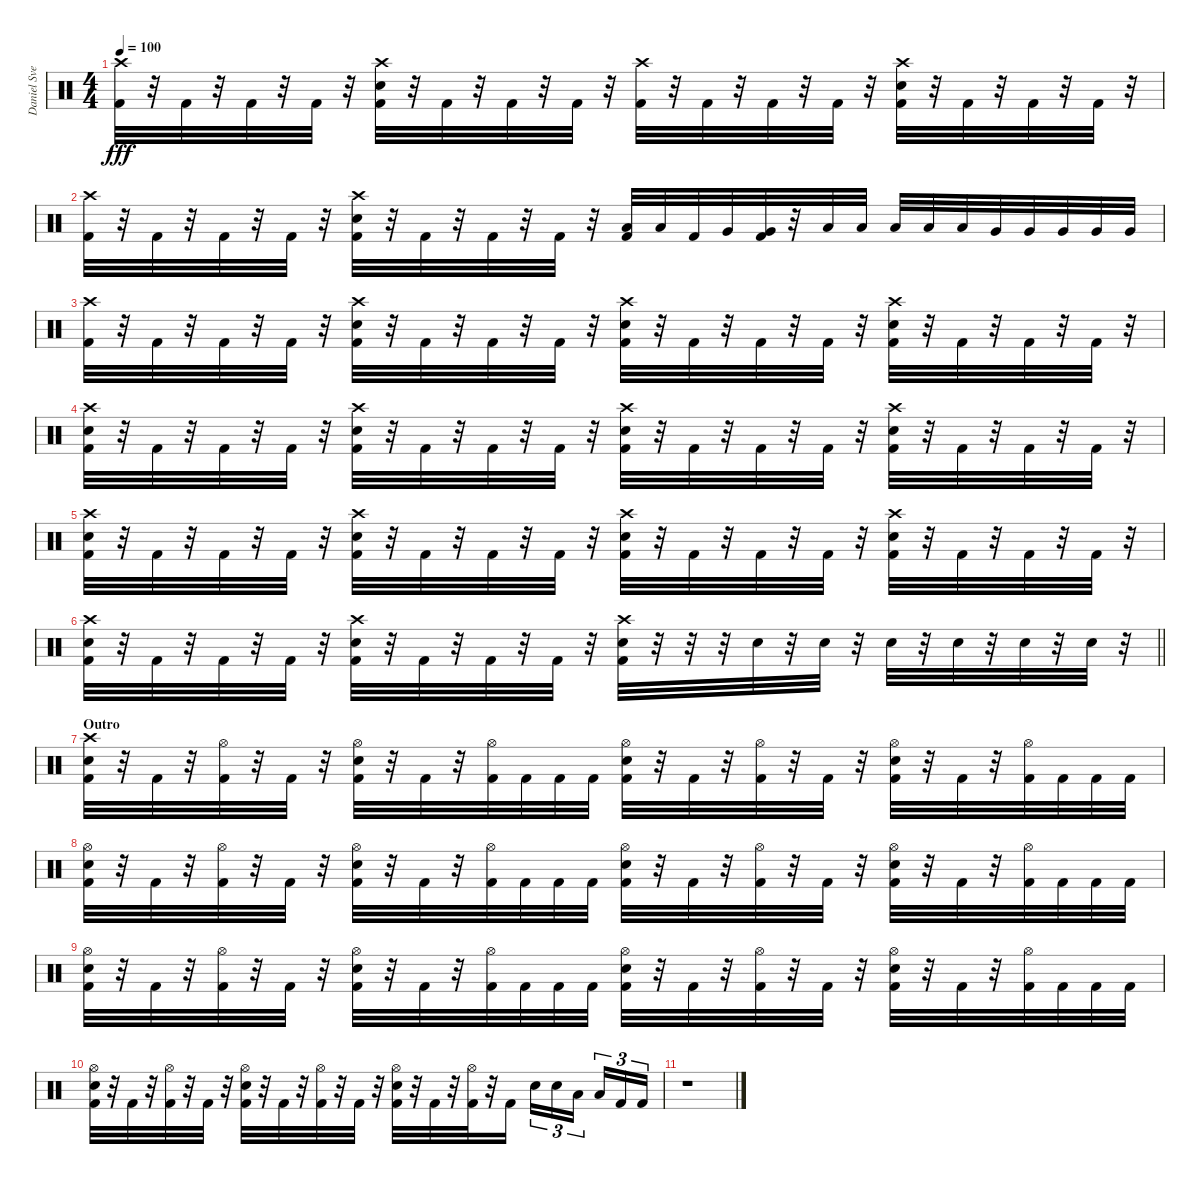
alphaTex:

\track ("Daniel Svensson" "Daniel Sve") {instrument percussion}
\staff {score}
\articulation defaults
\ts (4 4)
\tempo 100
\clef neutral
\ks c
("Crash high (hit)" "Kick (hit) 2").32{dy fff} r.32 "Kick (hit) 2".32 r.32 "Kick (hit) 2".32 r.32 "Kick (hit) 2".32 r.32 ("Crash high (hit)" "Electric Snare (hit)" "Kick (hit) 2").32 r.32 "Kick (hit) 2".32 r.32 "Kick (hit) 2".32 r.32 "Kick (hit) 2".32 r.32 ("Crash high (hit)" "Kick (hit) 2").32 r.32 "Kick (hit) 2".32 r.32 "Kick (hit) 2".32 r.32 "Kick (hit) 2".32 r.32 ("Crash high (hit)" "Electric Snare (hit)" "Kick (hit) 2").32 r.32 "Kick (hit) 2".32 r.32 "Kick (hit) 2".32 r.32 "Kick (hit) 2".32 r.32 |
("Crash high (hit)" "Kick (hit) 2").32 r.32 "Kick (hit) 2".32 r.32 "Kick (hit) 2".32 r.32 "Kick (hit) 2".32 r.32 ("Crash high (hit)" "Electric Snare (hit)" "Kick (hit) 2").32 r.32 "Kick (hit) 2".32 r.32 "Kick (hit) 2".32 r.32 "Kick (hit) 2".32 r.32 ("Low Tom (hit)" "Kick (hit) 2").32 "Low Tom (hit)".32 "Kick (hit) 2".32 "Very Low Tom (hit)".32 ("Very Low Tom (hit)" "Kick (hit) 2").32 r.32 "Low Tom (hit)".32 "Low Tom (hit)".32 "Low Tom (hit)".32 "Low Tom (hit)".32 "Low Tom (hit)".32 "Very Low Tom (hit)".32 "Very Low Tom (hit)".32 "Very Low Tom (hit)".32 "Very Low Tom (hit)".32 "Very Low Tom (hit)".32 |
("Crash high (hit)" "Kick (hit) 2").32 r.32 "Kick (hit) 2".32 r.32 "Kick (hit) 2".32 r.32 "Kick (hit) 2".32 r.32 ("Crash high (hit)" "Electric Snare (hit)" "Kick (hit) 2").32 r.32 "Kick (hit) 2".32 r.32 "Kick (hit) 2".32 r.32 "Kick (hit) 2".32 r.32 ("Crash high (hit)" "Electric Snare (hit)" "Kick (hit) 2").32 r.32 "Kick (hit) 2".32 r.32 "Kick (hit) 2".32 r.32 "Kick (hit) 2".32 r.32 ("Crash high (hit)" "Electric Snare (hit)" "Kick (hit) 2").32 r.32 "Kick (hit) 2".32 r.32 "Kick (hit) 2".32 r.32 "Kick (hit) 2".32 r.32 |
("Crash high (hit)" "Electric Snare (hit)" "Kick (hit) 2").32 r.32 "Kick (hit) 2".32 r.32 "Kick (hit) 2".32 r.32 "Kick (hit) 2".32 r.32 ("Crash high (hit)" "Electric Snare (hit)" "Kick (hit) 2").32 r.32 "Kick (hit) 2".32 r.32 "Kick (hit) 2".32 r.32 "Kick (hit) 2".32 r.32 ("Crash high (hit)" "Electric Snare (hit)" "Kick (hit) 2").32 r.32 "Kick (hit) 2".32 r.32 "Kick (hit) 2".32 r.32 "Kick (hit) 2".32 r.32 ("Crash high (hit)" "Electric Snare (hit)" "Kick (hit) 2").32 r.32 "Kick (hit) 2".32 r.32 "Kick (hit) 2".32 r.32 "Kick (hit) 2".32 r.32 |
("Crash high (hit)" "Electric Snare (hit)" "Kick (hit) 2").32 r.32 "Kick (hit) 2".32 r.32 "Kick (hit) 2".32 r.32 "Kick (hit) 2".32 r.32 ("Crash high (hit)" "Electric Snare (hit)" "Kick (hit) 2").32 r.32 "Kick (hit) 2".32 r.32 "Kick (hit) 2".32 r.32 "Kick (hit) 2".32 r.32 ("Crash high (hit)" "Electric Snare (hit)" "Kick (hit) 2").32 r.32 "Kick (hit) 2".32 r.32 "Kick (hit) 2".32 r.32 "Kick (hit) 2".32 r.32 ("Crash high (hit)" "Electric Snare (hit)" "Kick (hit) 2").32 r.32 "Kick (hit) 2".32 r.32 "Kick (hit) 2".32 r.32 "Kick (hit) 2".32 r.32 |
\barLineRight lightlight
("Crash high (hit)" "Electric Snare (hit)" "Kick (hit) 2").32 r.32 "Kick (hit) 2".32 r.32 "Kick (hit) 2".32 r.32 "Kick (hit) 2".32 r.32 ("Crash high (hit)" "Electric Snare (hit)" "Kick (hit) 2").32 r.32 "Kick (hit) 2".32 r.32 "Kick (hit) 2".32 r.32 "Kick (hit) 2".32 r.32 ("Crash high (hit)" "Electric Snare (hit)" "Kick (hit) 2").32 r.32 r.32 r.32 "Electric Snare (hit)".32 r.32 "Electric Snare (hit)".32 r.32 "Electric Snare (hit)".32 r.32 "Electric Snare (hit)".32 r.32 "Electric Snare (hit)".32 r.32 "Electric Snare (hit)".32 r.32 |
\section ("" "Outro")
("Crash high (hit)" "Electric Snare (hit)" "Kick (hit) 2").32 r.32 "Kick (hit) 2".32 r.32 ("Hi-Hat (open)" "Kick (hit) 2").32 r.32 "Kick (hit) 2".32 r.32 ("Hi-Hat (open)" "Electric Snare (hit)" "Kick (hit) 2").32 r.32 "Kick (hit) 2".32 r.32 ("Hi-Hat (open)" "Kick (hit) 2").32 "Kick (hit) 2".32 "Kick (hit) 2".32 "Kick (hit) 2".32 ("Hi-Hat (open)" "Electric Snare (hit)" "Kick (hit) 2").32 r.32 "Kick (hit) 2".32 r.32 ("Hi-Hat (open)" "Kick (hit) 2").32 r.32 "Kick (hit) 2".32 r.32 ("Hi-Hat (open)" "Electric Snare (hit)" "Kick (hit) 2").32 r.32 "Kick (hit) 2".32 r.32 ("Hi-Hat (open)" "Kick (hit) 2").32 "Kick (hit) 2".32 "Kick (hit) 2".32 "Kick (hit) 2".32 |
("Hi-Hat (open)" "Electric Snare (hit)" "Kick (hit) 2").32 r.32 "Kick (hit) 2".32 r.32 ("Hi-Hat (open)" "Kick (hit) 2").32 r.32 "Kick (hit) 2".32 r.32 ("Hi-Hat (open)" "Electric Snare (hit)" "Kick (hit) 2").32 r.32 "Kick (hit) 2".32 r.32 ("Hi-Hat (open)" "Kick (hit) 2").32 "Kick (hit) 2".32 "Kick (hit) 2".32 "Kick (hit) 2".32 ("Hi-Hat (open)" "Electric Snare (hit)" "Kick (hit) 2").32 r.32 "Kick (hit) 2".32 r.32 ("Hi-Hat (open)" "Kick (hit) 2").32 r.32 "Kick (hit) 2".32 r.32 ("Hi-Hat (open)" "Electric Snare (hit)" "Kick (hit) 2").32 r.32 "Kick (hit) 2".32 r.32 ("Hi-Hat (open)" "Kick (hit) 2").32 "Kick (hit) 2".32 "Kick (hit) 2".32 "Kick (hit) 2".32 |
("Hi-Hat (open)" "Electric Snare (hit)" "Kick (hit) 2").32 r.32 "Kick (hit) 2".32 r.32 ("Hi-Hat (open)" "Kick (hit) 2").32 r.32 "Kick (hit) 2".32 r.32 ("Hi-Hat (open)" "Electric Snare (hit)" "Kick (hit) 2").32 r.32 "Kick (hit) 2".32 r.32 ("Hi-Hat (open)" "Kick (hit) 2").32 "Kick (hit) 2".32 "Kick (hit) 2".32 "Kick (hit) 2".32 ("Hi-Hat (open)" "Electric Snare (hit)" "Kick (hit) 2").32 r.32 "Kick (hit) 2".32 r.32 ("Hi-Hat (open)" "Kick (hit) 2").32 r.32 "Kick (hit) 2".32 r.32 ("Hi-Hat (open)" "Electric Snare (hit)" "Kick (hit) 2").32 r.32 "Kick (hit) 2".32 r.32 ("Hi-Hat (open)" "Kick (hit) 2").32 "Kick (hit) 2".32 "Kick (hit) 2".32 "Kick (hit) 2".32 |
("Hi-Hat (open)" "Electric Snare (hit)" "Kick (hit) 2").32 r.32 "Kick (hit) 2".32 r.32 ("Hi-Hat (open)" "Kick (hit) 2").32 r.32 "Kick (hit) 2".32 r.32 ("Hi-Hat (open)" "Electric Snare (hit)" "Kick (hit) 2").32 r.32 "Kick (hit) 2".32 r.32 ("Hi-Hat (open)" "Kick (hit) 2").32 r.32 "Kick (hit) 2".32 r.32 ("Hi-Hat (open)" "Electric Snare (hit)" "Kick (hit) 2").32 r.32 "Kick (hit) 2".32 r.32 ("Hi-Hat (open)" "Kick (hit) 2").32 r.32 "Kick (hit) 2".16 "Electric Snare (hit)".16{tu (3 2)} "Electric Snare (hit)".16{tu (3 2)} "Low Tom (hit)".16{tu (3 2) beam splitsecondary} "Low Tom (hit)".16{tu (3 2)} "Kick (hit) 2".16{tu (3 2)} "Kick (hit) 2".16{tu (3 2)} |
r.1
